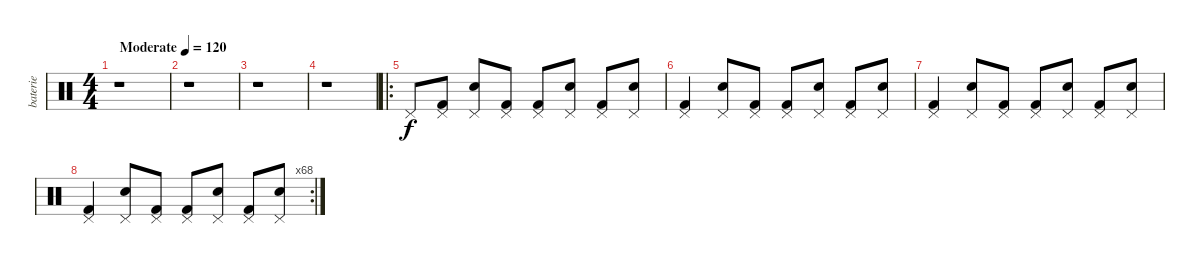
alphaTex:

\track ("baterie" "baterie") {instrument percussion}
\staff {score}
\articulation defaults
\ts (4 4)
\tempo (120 "Moderate")
\clef neutral
\ks c
r.1{dy f} |
r.1 |
r.1 |
r.1 |
\ro "Pedal Hi-Hat (hit)".8
("Pedal Hi-Hat (hit)" "Kick (hit) 2").8 ("Pedal Hi-Hat (hit)" "Snare (hit) 2").8 ("Pedal Hi-Hat (hit)" "Kick (hit) 2").8 ("Pedal Hi-Hat (hit)" "Kick (hit) 2").8 ("Pedal Hi-Hat (hit)" "Snare (hit) 2").8 ("Pedal Hi-Hat (hit)" "Kick (hit) 2").8 ("Pedal Hi-Hat (hit)" "Snare (hit) 2").8 |
("Pedal Hi-Hat (hit)" "Kick (hit) 2").4 ("Pedal Hi-Hat (hit)" "Snare (hit) 2").8 ("Pedal Hi-Hat (hit)" "Kick (hit) 2").8 ("Pedal Hi-Hat (hit)" "Kick (hit) 2").8 ("Pedal Hi-Hat (hit)" "Snare (hit) 2").8 ("Pedal Hi-Hat (hit)" "Kick (hit) 2").8 ("Pedal Hi-Hat (hit)" "Snare (hit) 2").8 |
("Pedal Hi-Hat (hit)" "Kick (hit) 2").4 ("Pedal Hi-Hat (hit)" "Snare (hit) 2").8 ("Pedal Hi-Hat (hit)" "Kick (hit) 2").8 ("Pedal Hi-Hat (hit)" "Kick (hit) 2").8 ("Pedal Hi-Hat (hit)" "Snare (hit) 2").8 ("Pedal Hi-Hat (hit)" "Kick (hit) 2").8 ("Pedal Hi-Hat (hit)" "Snare (hit) 2").8 |
\rc 68
("Pedal Hi-Hat (hit)" "Kick (hit) 2").4 ("Pedal Hi-Hat (hit)" "Snare (hit) 2").8 ("Pedal Hi-Hat (hit)" "Kick (hit) 2").8 ("Pedal Hi-Hat (hit)" "Kick (hit) 2").8 ("Pedal Hi-Hat (hit)" "Snare (hit) 2").8 ("Pedal Hi-Hat (hit)" "Kick (hit) 2").8 ("Pedal Hi-Hat (hit)" "Snare (hit) 2").8
